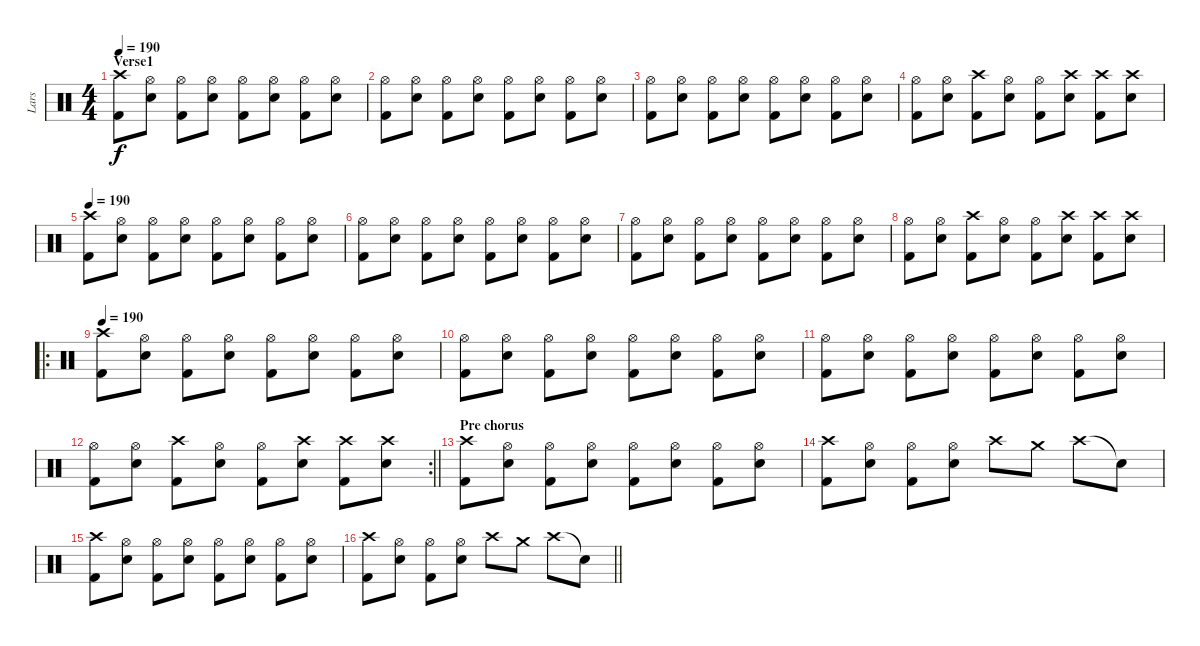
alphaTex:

\track ("Lars" "Lars") {instrument percussion}
\staff {score}
\articulation defaults
\ts (4 4)
\section ("" "Verse1")
\tempo 190
\clef neutral
\ks c
("Crash high (hit)" "Kick (hit) 2").8{dy f} ("Hi-Hat (open)" "Snare (hit) 2").8 ("Hi-Hat (open)" "Kick (hit) 2").8 ("Hi-Hat (open)" "Snare (hit) 2").8 ("Hi-Hat (open)" "Kick (hit) 2").8 ("Hi-Hat (open)" "Snare (hit) 2").8 ("Hi-Hat (open)" "Kick (hit) 2").8 ("Hi-Hat (open)" "Snare (hit) 2").8 |
("Hi-Hat (open)" "Kick (hit) 2").8 ("Hi-Hat (open)" "Snare (hit) 2").8 ("Hi-Hat (open)" "Kick (hit) 2").8 ("Hi-Hat (open)" "Snare (hit) 2").8 ("Hi-Hat (open)" "Kick (hit) 2").8 ("Hi-Hat (open)" "Snare (hit) 2").8 ("Hi-Hat (open)" "Kick (hit) 2").8 ("Hi-Hat (open)" "Snare (hit) 2").8 |
("Hi-Hat (open)" "Kick (hit) 2").8 ("Hi-Hat (open)" "Snare (hit) 2").8 ("Hi-Hat (open)" "Kick (hit) 2").8 ("Hi-Hat (open)" "Snare (hit) 2").8 ("Hi-Hat (open)" "Kick (hit) 2").8 ("Hi-Hat (open)" "Snare (hit) 2").8 ("Hi-Hat (open)" "Kick (hit) 2").8 ("Hi-Hat (open)" "Snare (hit) 2").8 |
("Hi-Hat (open)" "Kick (hit) 2").8 ("Hi-Hat (open)" "Snare (hit) 2").8 ("Crash high (hit)" "Kick (hit) 2").8 ("Hi-Hat (open)" "Snare (hit) 2").8 ("Hi-Hat (open)" "Kick (hit) 2").8 ("Crash high (hit)" "Snare (hit) 2").8 ("Crash high (hit)" "Kick (hit) 2").8 ("Crash high (hit)" "Snare (hit) 2").8 |
\tempo 190
("Crash high (hit)" "Kick (hit) 2").8 ("Hi-Hat (open)" "Snare (hit) 2").8 ("Hi-Hat (open)" "Kick (hit) 2").8 ("Hi-Hat (open)" "Snare (hit) 2").8 ("Hi-Hat (open)" "Kick (hit) 2").8 ("Hi-Hat (open)" "Snare (hit) 2").8 ("Hi-Hat (open)" "Kick (hit) 2").8 ("Hi-Hat (open)" "Snare (hit) 2").8 |
("Hi-Hat (open)" "Kick (hit) 2").8 ("Hi-Hat (open)" "Snare (hit) 2").8 ("Hi-Hat (open)" "Kick (hit) 2").8 ("Hi-Hat (open)" "Snare (hit) 2").8 ("Hi-Hat (open)" "Kick (hit) 2").8 ("Hi-Hat (open)" "Snare (hit) 2").8 ("Hi-Hat (open)" "Kick (hit) 2").8 ("Hi-Hat (open)" "Snare (hit) 2").8 |
("Hi-Hat (open)" "Kick (hit) 2").8 ("Hi-Hat (open)" "Snare (hit) 2").8 ("Hi-Hat (open)" "Kick (hit) 2").8 ("Hi-Hat (open)" "Snare (hit) 2").8 ("Hi-Hat (open)" "Kick (hit) 2").8 ("Hi-Hat (open)" "Snare (hit) 2").8 ("Hi-Hat (open)" "Kick (hit) 2").8 ("Hi-Hat (open)" "Snare (hit) 2").8 |
("Hi-Hat (open)" "Kick (hit) 2").8 ("Hi-Hat (open)" "Snare (hit) 2").8 ("Crash high (hit)" "Kick (hit) 2").8 ("Hi-Hat (open)" "Snare (hit) 2").8 ("Hi-Hat (open)" "Kick (hit) 2").8 ("Crash high (hit)" "Snare (hit) 2").8 ("Crash high (hit)" "Kick (hit) 2").8 ("Crash high (hit)" "Snare (hit) 2").8 |
\ro
\tempo 190
("Crash high (hit)" "Kick (hit) 2").8 ("Hi-Hat (open)" "Snare (hit) 2").8 ("Hi-Hat (open)" "Kick (hit) 2").8 ("Hi-Hat (open)" "Snare (hit) 2").8 ("Hi-Hat (open)" "Kick (hit) 2").8 ("Hi-Hat (open)" "Snare (hit) 2").8 ("Hi-Hat (open)" "Kick (hit) 2").8 ("Hi-Hat (open)" "Snare (hit) 2").8 |
("Hi-Hat (open)" "Kick (hit) 2").8 ("Hi-Hat (open)" "Snare (hit) 2").8 ("Hi-Hat (open)" "Kick (hit) 2").8 ("Hi-Hat (open)" "Snare (hit) 2").8 ("Hi-Hat (open)" "Kick (hit) 2").8 ("Hi-Hat (open)" "Snare (hit) 2").8 ("Hi-Hat (open)" "Kick (hit) 2").8 ("Hi-Hat (open)" "Snare (hit) 2").8 |
("Hi-Hat (open)" "Kick (hit) 2").8 ("Hi-Hat (open)" "Snare (hit) 2").8 ("Hi-Hat (open)" "Kick (hit) 2").8 ("Hi-Hat (open)" "Snare (hit) 2").8 ("Hi-Hat (open)" "Kick (hit) 2").8 ("Hi-Hat (open)" "Snare (hit) 2").8 ("Hi-Hat (open)" "Kick (hit) 2").8 ("Hi-Hat (open)" "Snare (hit) 2").8 |
\rc 2
\barLineRight lightlight
("Hi-Hat (open)" "Kick (hit) 2").8 ("Hi-Hat (open)" "Snare (hit) 2").8 ("Crash high (hit)" "Kick (hit) 2").8 ("Hi-Hat (open)" "Snare (hit) 2").8 ("Hi-Hat (open)" "Kick (hit) 2").8 ("Crash high (hit)" "Snare (hit) 2").8 ("Crash high (hit)" "Kick (hit) 2").8 ("Crash high (hit)" "Snare (hit) 2").8 |
\section ("" "Pre chorus")
("Crash high (hit)" "Kick (hit) 2").8 ("Hi-Hat (open)" "Snare (hit) 2").8 ("Hi-Hat (open)" "Kick (hit) 2").8 ("Hi-Hat (open)" "Snare (hit) 2").8 ("Hi-Hat (open)" "Kick (hit) 2").8 ("Hi-Hat (open)" "Snare (hit) 2").8 ("Hi-Hat (open)" "Kick (hit) 2").8 ("Hi-Hat (open)" "Snare (hit) 2").8 |
("Crash high (hit)" "Kick (hit) 2").8 ("Hi-Hat (open)" "Snare (hit) 2").8 ("Hi-Hat (open)" "Kick (hit) 2").8 ("Hi-Hat (open)" "Snare (hit) 2").8 "Crash high (hit)".8 "Crash medium (hit)".8 "Crash high (hit)".8 "Snare (hit)"{t}.8 |
("Crash high (hit)" "Kick (hit) 2").8 ("Hi-Hat (open)" "Snare (hit) 2").8 ("Hi-Hat (open)" "Kick (hit) 2").8 ("Hi-Hat (open)" "Snare (hit) 2").8 ("Hi-Hat (open)" "Kick (hit) 2").8 ("Hi-Hat (open)" "Snare (hit) 2").8 ("Hi-Hat (open)" "Kick (hit) 2").8 ("Hi-Hat (open)" "Snare (hit) 2").8 |
\barLineRight lightlight
("Crash high (hit)" "Kick (hit) 2").8 ("Hi-Hat (open)" "Snare (hit) 2").8 ("Hi-Hat (open)" "Kick (hit) 2").8 ("Hi-Hat (open)" "Snare (hit) 2").8 "Crash high (hit)".8 "Crash medium (hit)".8 "Crash high (hit)".8 "Snare (hit)"{t}.8
